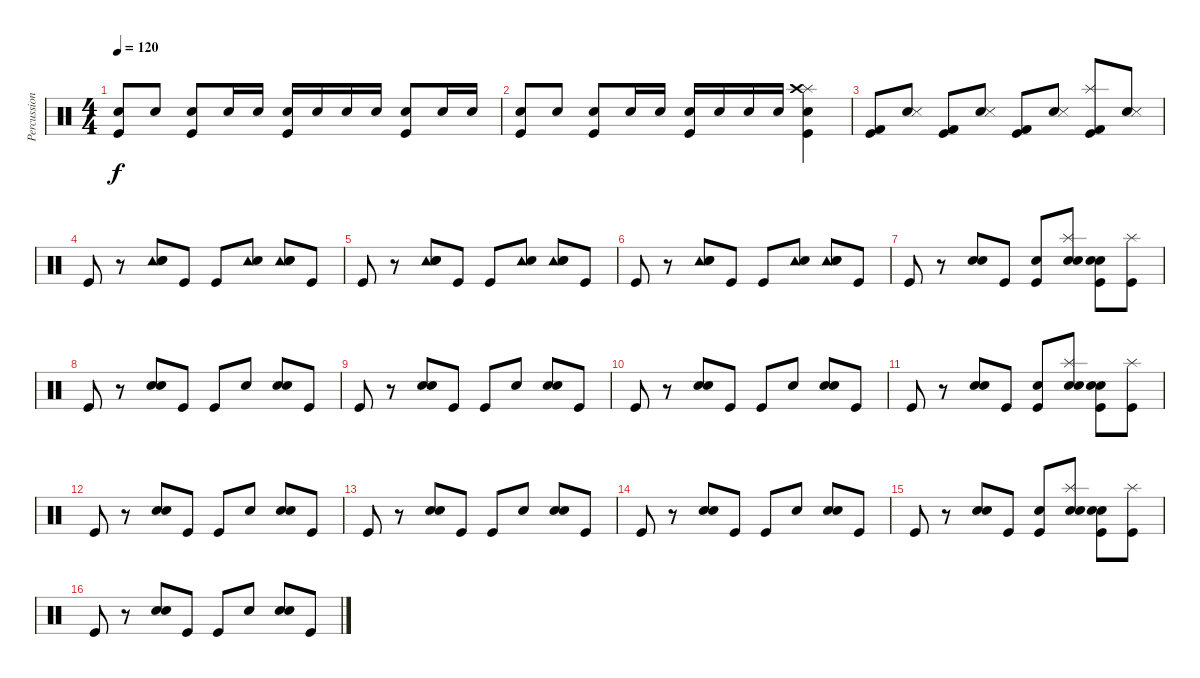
\track ("Percussion" "Percussion") {instrument percussion}
\staff {score}
\articulation defaults
\ts (4 4)
\tempo 120
\clef neutral
\ks c
("Snare (hit) 2" "Kick (hit)").8{dy f} "Snare (hit) 2".8 ("Snare (hit) 2" "Kick (hit)").8 "Snare (hit) 2".16 "Snare (hit) 2".16 ("Snare (hit) 2" "Kick (hit)").16 "Snare (hit) 2".16 "Snare (hit) 2".16 "Snare (hit) 2".16 ("Snare (hit) 2" "Kick (hit)").8 "Snare (hit) 2".16 "Snare (hit) 2".16 |
("Snare (hit) 2" "Kick (hit)").8 "Snare (hit) 2".8 ("Snare (hit) 2" "Kick (hit)").8 "Snare (hit) 2".16 "Snare (hit) 2".16 ("Snare (hit) 2" "Kick (hit)").16 "Snare (hit) 2".16 "Snare (hit) 2".16 "Snare (hit) 2".16 ("Splash (hit)" "Crash high (hit)" "Snare (hit) 2" "Kick (hit)").4 |
("Kick (hit) 2" "Kick (hit)").8 ("Snare (hit) 2" "Snare (side stick) 3").8 ("Kick (hit) 2" "Kick (hit)").8 ("Snare (hit) 2" "Snare (side stick) 3").8 ("Kick (hit) 2" "Kick (hit)").8 ("Snare (hit) 2" "Snare (side stick) 3").8 ("Splash (hit)" "Kick (hit) 2" "Kick (hit)").8 ("Snare (hit) 2" "Snare (side stick) 3").8 |
"Kick (hit)".8 r.8 ("Tambourine (hit)" "Hand Clap (hit)" "Snare (hit) 2").8 "Kick (hit)".8 "Kick (hit)".8 ("Tambourine (hit)" "Hand Clap (hit)").8 ("Tambourine (hit)" "Hand Clap (hit)" "Snare (hit) 2").8 "Kick (hit)".8 |
"Kick (hit)".8 r.8 ("Tambourine (hit)" "Hand Clap (hit)" "Snare (hit) 2").8 "Kick (hit)".8 "Kick (hit)".8 ("Tambourine (hit)" "Hand Clap (hit)").8 ("Tambourine (hit)" "Hand Clap (hit)" "Snare (hit) 2").8 "Kick (hit)".8 |
"Kick (hit)".8 r.8 ("Tambourine (hit)" "Hand Clap (hit)" "Snare (hit) 2").8 "Kick (hit)".8 "Kick (hit)".8 ("Tambourine (hit)" "Hand Clap (hit)").8 ("Tambourine (hit)" "Hand Clap (hit)" "Snare (hit) 2").8 "Kick (hit)".8 |
"Kick (hit)".8 r.8 ("Hand Clap (hit)" "Snare (hit) 2").8 "Kick (hit)".8 ("Snare (hit) 2" "Kick (hit)").8 ("Splash (hit)" "Hand Clap (hit)" "Snare (hit) 2").8 ("Hand Clap (hit)" "Snare (hit) 2" "Kick (hit)").8 ("Splash (hit)" "Kick (hit)").8 |
"Kick (hit)".8 r.8 ("Hand Clap (hit)" "Snare (hit) 2").8 "Kick (hit)".8 "Kick (hit)".8 "Hand Clap (hit)".8 ("Hand Clap (hit)" "Snare (hit) 2").8 "Kick (hit)".8 |
"Kick (hit)".8 r.8 ("Hand Clap (hit)" "Snare (hit) 2").8 "Kick (hit)".8 "Kick (hit)".8 "Hand Clap (hit)".8 ("Hand Clap (hit)" "Snare (hit) 2").8 "Kick (hit)".8 |
"Kick (hit)".8 r.8 ("Hand Clap (hit)" "Snare (hit) 2").8 "Kick (hit)".8 "Kick (hit)".8 "Hand Clap (hit)".8 ("Hand Clap (hit)" "Snare (hit) 2").8 "Kick (hit)".8 |
"Kick (hit)".8 r.8 ("Hand Clap (hit)" "Snare (hit) 2").8 "Kick (hit)".8 ("Snare (hit) 2" "Kick (hit)").8 ("Splash (hit)" "Hand Clap (hit)" "Snare (hit) 2").8 ("Hand Clap (hit)" "Snare (hit) 2" "Kick (hit)").8 ("Splash (hit)" "Kick (hit)").8 |
"Kick (hit)".8 r.8 ("Hand Clap (hit)" "Snare (hit) 2").8 "Kick (hit)".8 "Kick (hit)".8 "Hand Clap (hit)".8 ("Hand Clap (hit)" "Snare (hit) 2").8 "Kick (hit)".8 |
"Kick (hit)".8 r.8 ("Hand Clap (hit)" "Snare (hit) 2").8 "Kick (hit)".8 "Kick (hit)".8 "Hand Clap (hit)".8 ("Hand Clap (hit)" "Snare (hit) 2").8 "Kick (hit)".8 |
"Kick (hit)".8 r.8 ("Hand Clap (hit)" "Snare (hit) 2").8 "Kick (hit)".8 "Kick (hit)".8 "Hand Clap (hit)".8 ("Hand Clap (hit)" "Snare (hit) 2").8 "Kick (hit)".8 |
"Kick (hit)".8 r.8 ("Hand Clap (hit)" "Snare (hit) 2").8 "Kick (hit)".8 ("Snare (hit) 2" "Kick (hit)").8 ("Splash (hit)" "Hand Clap (hit)" "Snare (hit) 2").8 ("Hand Clap (hit)" "Snare (hit) 2" "Kick (hit)").8 ("Splash (hit)" "Kick (hit)").8 |
"Kick (hit)".8 r.8 ("Hand Clap (hit)" "Snare (hit) 2").8 "Kick (hit)".8 "Kick (hit)".8 "Hand Clap (hit)".8 ("Hand Clap (hit)" "Snare (hit) 2").8 "Kick (hit)".8
